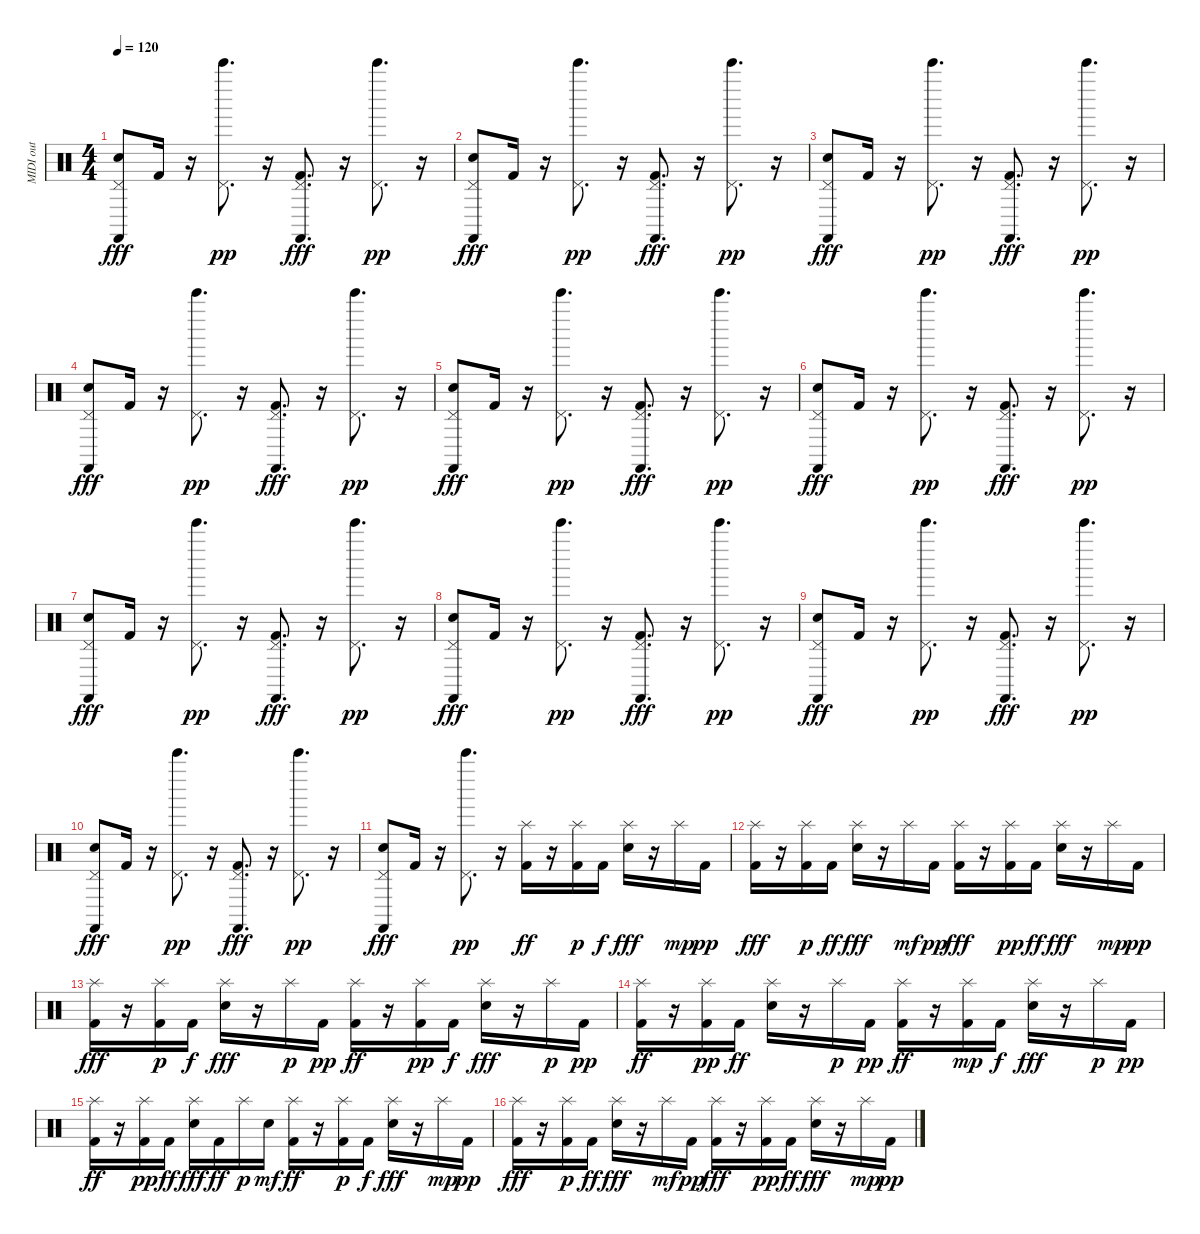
\track ("MIDI out" "MIDI out") {instrument percussion}
\staff {score}
\articulation defaults
\ts (4 4)
\tempo 120
\clef neutral
\ks c
("Snare (hit) 2" "Pedal Hi-Hat (hit)" "Castanets (hit)").8{dy fff} "Kick (hit) 2".16 r.16 ("Pedal Hi-Hat (hit)" "Bell Tree (hit)").8{d dy pp} r.16 ("Pedal Hi-Hat (hit)" "Kick (hit) 2" "Castanets (hit)").8{d dy fff} r.16 ("Pedal Hi-Hat (hit)" "Bell Tree (hit)").8{d dy pp} r.16 |
("Snare (hit) 2" "Pedal Hi-Hat (hit)" "Castanets (hit)").8{dy fff} "Kick (hit) 2".16 r.16 ("Pedal Hi-Hat (hit)" "Bell Tree (hit)").8{d dy pp} r.16 ("Pedal Hi-Hat (hit)" "Kick (hit) 2" "Castanets (hit)").8{d dy fff} r.16 ("Pedal Hi-Hat (hit)" "Bell Tree (hit)").8{d dy pp} r.16 |
("Snare (hit) 2" "Pedal Hi-Hat (hit)" "Castanets (hit)").8{dy fff} "Kick (hit) 2".16 r.16 ("Pedal Hi-Hat (hit)" "Bell Tree (hit)").8{d dy pp} r.16 ("Pedal Hi-Hat (hit)" "Kick (hit) 2" "Castanets (hit)").8{d dy fff} r.16 ("Pedal Hi-Hat (hit)" "Bell Tree (hit)").8{d dy pp} r.16 |
("Snare (hit) 2" "Pedal Hi-Hat (hit)" "Castanets (hit)").8{dy fff} "Kick (hit) 2".16 r.16 ("Pedal Hi-Hat (hit)" "Bell Tree (hit)").8{d dy pp} r.16 ("Pedal Hi-Hat (hit)" "Kick (hit) 2" "Castanets (hit)").8{d dy fff} r.16 ("Pedal Hi-Hat (hit)" "Bell Tree (hit)").8{d dy pp} r.16 |
("Snare (hit) 2" "Pedal Hi-Hat (hit)" "Castanets (hit)").8{dy fff} "Kick (hit) 2".16 r.16 ("Pedal Hi-Hat (hit)" "Bell Tree (hit)").8{d dy pp} r.16 ("Pedal Hi-Hat (hit)" "Kick (hit) 2" "Castanets (hit)").8{d dy fff} r.16 ("Pedal Hi-Hat (hit)" "Bell Tree (hit)").8{d dy pp} r.16 |
("Snare (hit) 2" "Pedal Hi-Hat (hit)" "Castanets (hit)").8{dy fff} "Kick (hit) 2".16 r.16 ("Pedal Hi-Hat (hit)" "Bell Tree (hit)").8{d dy pp} r.16 ("Pedal Hi-Hat (hit)" "Kick (hit) 2" "Castanets (hit)").8{d dy fff} r.16 ("Pedal Hi-Hat (hit)" "Bell Tree (hit)").8{d dy pp} r.16 |
("Snare (hit) 2" "Pedal Hi-Hat (hit)" "Castanets (hit)").8{dy fff} "Kick (hit) 2".16 r.16 ("Pedal Hi-Hat (hit)" "Bell Tree (hit)").8{d dy pp} r.16 ("Pedal Hi-Hat (hit)" "Kick (hit) 2" "Castanets (hit)").8{d dy fff} r.16 ("Pedal Hi-Hat (hit)" "Bell Tree (hit)").8{d dy pp} r.16 |
("Snare (hit) 2" "Pedal Hi-Hat (hit)" "Castanets (hit)").8{dy fff} "Kick (hit) 2".16 r.16 ("Pedal Hi-Hat (hit)" "Bell Tree (hit)").8{d dy pp} r.16 ("Pedal Hi-Hat (hit)" "Kick (hit) 2" "Castanets (hit)").8{d dy fff} r.16 ("Pedal Hi-Hat (hit)" "Bell Tree (hit)").8{d dy pp} r.16 |
("Snare (hit) 2" "Pedal Hi-Hat (hit)" "Castanets (hit)").8{dy fff} "Kick (hit) 2".16 r.16 ("Pedal Hi-Hat (hit)" "Bell Tree (hit)").8{d dy pp} r.16 ("Pedal Hi-Hat (hit)" "Kick (hit) 2" "Castanets (hit)").8{d dy fff} r.16 ("Pedal Hi-Hat (hit)" "Bell Tree (hit)").8{d dy pp} r.16 |
("Snare (hit) 2" "Pedal Hi-Hat (hit)" "Castanets (hit)").8{dy fff} "Kick (hit) 2".16 r.16 ("Pedal Hi-Hat (hit)" "Bell Tree (hit)").8{d dy pp} r.16 ("Pedal Hi-Hat (hit)" "Kick (hit) 2" "Castanets (hit)").8{d dy fff} r.16 ("Pedal Hi-Hat (hit)" "Bell Tree (hit)").8{d dy pp} r.16 |
("Snare (hit) 2" "Pedal Hi-Hat (hit)" "Castanets (hit)").8{dy fff} "Kick (hit) 2".16 r.16 ("Pedal Hi-Hat (hit)" "Bell Tree (hit)").8{d dy pp} r.16 ("Splash (hit)" "Kick (hit) 2").16{dy ff} r.16 ("Kick (hit) 2" "Splash (hit)").16{dy p} "Kick (hit) 2".16{dy f} ("Splash (hit)" "Snare (hit) 2").16{dy fff} r.16 "Splash (hit)".16{dy mp} "Kick (hit) 2".16{dy pp} |
("Kick (hit) 2" "Splash (hit)").16{dy fff} r.16 ("Splash (hit)" "Kick (hit) 2").16{dy p} "Kick (hit) 2".16{dy ff} ("Splash (hit)" "Snare (hit) 2").16{dy fff} r.16 "Splash (hit)".16{dy mf} "Kick (hit) 2".16{dy pp} ("Kick (hit) 2" "Splash (hit)").16{dy fff} r.16 ("Splash (hit)" "Kick (hit) 2").16{dy pp} "Kick (hit) 2".16{dy ff} ("Snare (hit) 2" "Splash (hit)").16{dy fff} r.16 "Splash (hit)".16{dy mp} "Kick (hit) 2".16{dy pp} |
("Kick (hit) 2" "Splash (hit)").16{dy fff} r.16 ("Splash (hit)" "Kick (hit) 2").16{dy p} "Kick (hit) 2".16{dy f} ("Splash (hit)" "Snare (hit) 2").16{dy fff} r.16 "Splash (hit)".16{dy p} "Kick (hit) 2".16{dy pp} ("Splash (hit)" "Kick (hit) 2").16{dy ff} r.16 ("Splash (hit)" "Kick (hit) 2").16{dy pp} "Kick (hit) 2".16{dy f} ("Splash (hit)" "Snare (hit) 2").16{dy fff} r.16 "Splash (hit)".16{dy p} "Kick (hit) 2".16{dy pp} |
("Splash (hit)" "Kick (hit) 2").16{dy ff} r.16 ("Splash (hit)" "Kick (hit) 2").16{dy pp} "Kick (hit) 2".16{dy ff} ("Snare (hit) 2" "Splash (hit)").16 r.16 "Splash (hit)".16{dy p} "Kick (hit) 2".16{dy pp} ("Splash (hit)" "Kick (hit) 2").16{dy ff} r.16 ("Kick (hit) 2" "Splash (hit)").16{dy mp} "Kick (hit) 2".16{dy f} ("Snare (hit) 2" "Splash (hit)").16{dy fff} r.16 "Splash (hit)".16{dy p} "Kick (hit) 2".16{dy pp} |
("Kick (hit) 2" "Splash (hit)").16{dy ff} r.16 ("Splash (hit)" "Kick (hit) 2").16{dy pp} "Kick (hit) 2".16{dy ff} ("Splash (hit)" "Snare (hit) 2").16{dy fff} "Kick (hit) 2".16{dy ff} "Splash (hit)".16{dy p} "Snare (hit) 2".16{dy mf} ("Splash (hit)" "Kick (hit) 2").16{dy ff} r.16 ("Kick (hit) 2" "Splash (hit)").16{dy p} "Kick (hit) 2".16{dy f} ("Splash (hit)" "Snare (hit) 2").16{dy fff} r.16 "Splash (hit)".16{dy mp} "Kick (hit) 2".16{dy pp} |
("Kick (hit) 2" "Splash (hit)").16{dy fff} r.16 ("Splash (hit)" "Kick (hit) 2").16{dy p} "Kick (hit) 2".16{dy ff} ("Splash (hit)" "Snare (hit) 2").16{dy fff} r.16 "Splash (hit)".16{dy mf} "Kick (hit) 2".16{dy pp} ("Kick (hit) 2" "Splash (hit)").16{dy fff} r.16 ("Splash (hit)" "Kick (hit) 2").16{dy pp} "Kick (hit) 2".16{dy ff} ("Snare (hit) 2" "Splash (hit)").16{dy fff} r.16 "Splash (hit)".16{dy mp} "Kick (hit) 2".16{dy pp}
